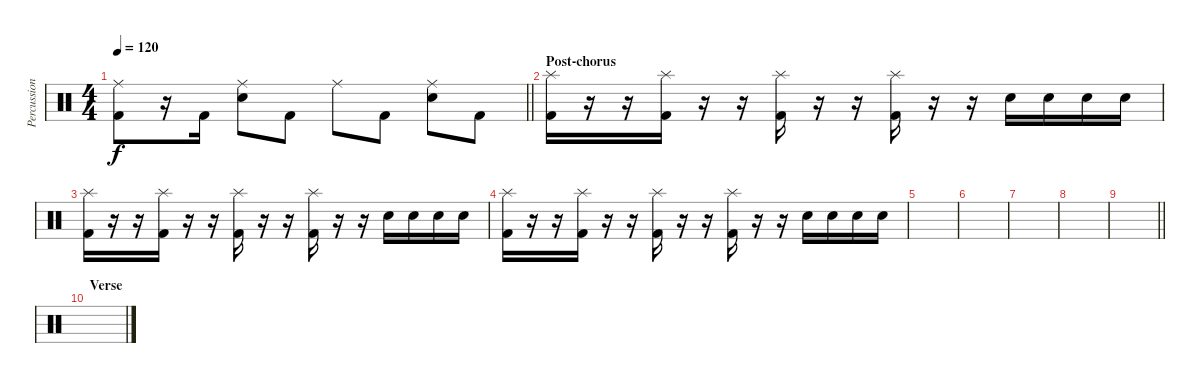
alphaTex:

\track ("Percussion" "Percussion") {instrument percussion}
\staff {score}
\articulation defaults
\ts (4 4)
\tempo 120
\clef neutral
\barLineRight lightlight
\ks c
("Ride (middle)" "Kick (hit) 2").8{dy f} r.16 "Kick (hit) 2".16 ("Ride (middle)" "Snare (hit) 2").8 "Kick (hit) 2".8 "Ride (middle)".8 "Kick (hit) 2".8 ("Ride (middle)" "Snare (hit) 2").8 "Kick (hit) 2".8 |
\section ("" "Post-chorus")
("Splash (hit)" "Kick (hit) 2").16 r.16 r.16 ("Splash (hit)" "Kick (hit) 2").16 r.16 r.16 ("Splash (hit)" "Kick (hit) 2").16 r.16 r.16 ("Splash (hit)" "Kick (hit) 2").16 r.16 r.16 "Snare (hit) 2".16 "Snare (hit) 2".16 "Snare (hit) 2".16 "Snare (hit) 2".16 |
("Splash (hit)" "Kick (hit) 2").16 r.16 r.16 ("Splash (hit)" "Kick (hit) 2").16 r.16 r.16 ("Splash (hit)" "Kick (hit) 2").16 r.16 r.16 ("Splash (hit)" "Kick (hit) 2").16 r.16 r.16 "Snare (hit) 2".16 "Snare (hit) 2".16 "Snare (hit) 2".16 "Snare (hit) 2".16 |
("Splash (hit)" "Kick (hit) 2").16 r.16 r.16 ("Splash (hit)" "Kick (hit) 2").16 r.16 r.16 ("Splash (hit)" "Kick (hit) 2").16 r.16 r.16 ("Splash (hit)" "Kick (hit) 2").16 r.16 r.16 "Snare (hit) 2".16 "Snare (hit) 2".16 "Snare (hit) 2".16 "Snare (hit) 2".16 |
|
|
|
|
\barLineRight lightlight
|
\section ("" "Verse")
